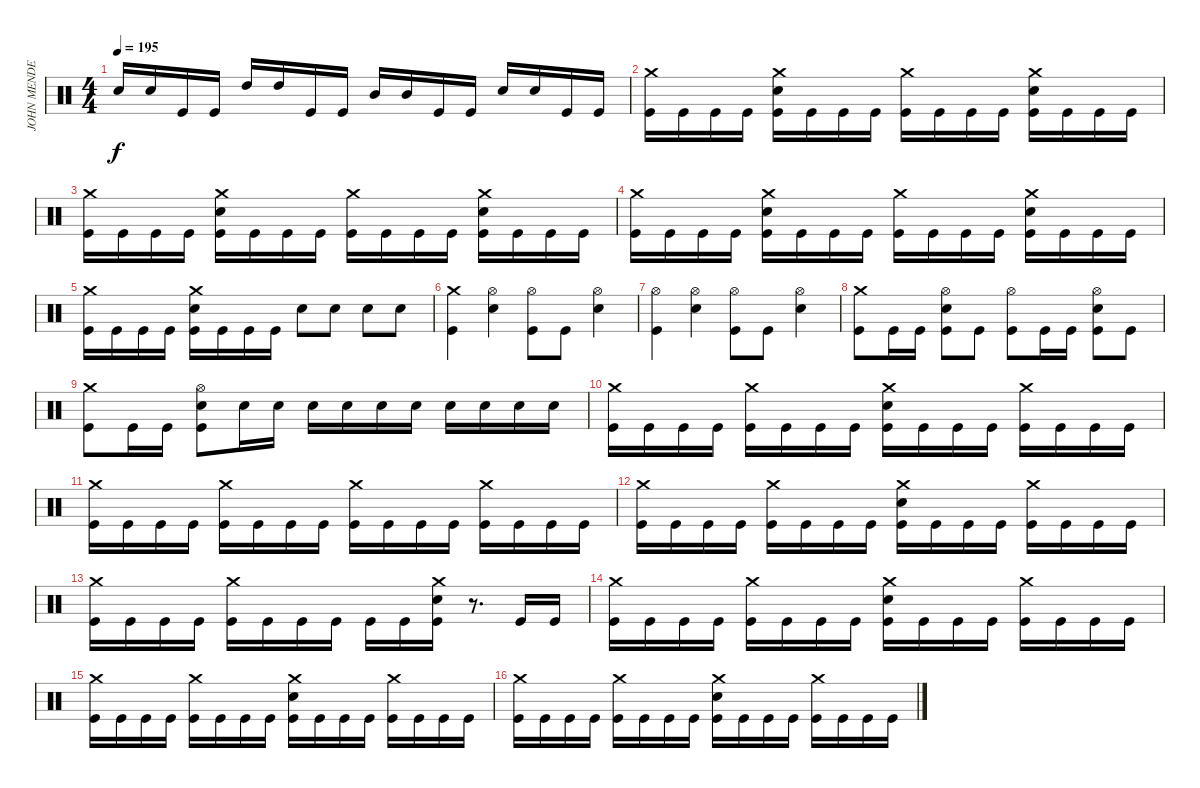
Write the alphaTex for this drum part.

\track ("JOHN MENDESSSSSSS" "JOHN MENDE") {instrument percussion}
\staff {score}
\articulation defaults
\ts (4 4)
\tempo 195
\clef neutral
\ks c "Snare (hit) 2".16{dy f} "Snare (hit) 2".16 "Kick (hit)".16 "Kick (hit)".16 "High Tom (hit)".16 "High Tom (hit)".16 "Kick (hit)".16 "Kick (hit)".16 "Mid Tom (hit)".16 "Mid Tom (hit)".16 "Kick (hit)".16 "Kick (hit)".16 "Snare (hit) 2".16 "Snare (hit) 2".16 "Kick (hit)".16 "Kick (hit)".16
|
("Kick (hit)" "Crash medium (hit)").16 "Kick (hit)".16 "Kick (hit)".16 "Kick (hit)".16 ("Kick (hit)" "Snare (hit) 2" "Crash medium (hit)").16 "Kick (hit)".16 "Kick (hit)".16 "Kick (hit)".16 ("Kick (hit)" "Crash medium (hit)").16 "Kick (hit)".16 "Kick (hit)".16 "Kick (hit)".16 ("Kick (hit)" "Snare (hit) 2" "Crash medium (hit)").16 "Kick (hit)".16 "Kick (hit)".16 "Kick (hit)".16 |
("Kick (hit)" "Crash medium (hit)").16 "Kick (hit)".16 "Kick (hit)".16 "Kick (hit)".16 ("Kick (hit)" "Snare (hit) 2" "Crash medium (hit)").16 "Kick (hit)".16 "Kick (hit)".16 "Kick (hit)".16 ("Kick (hit)" "Crash medium (hit)").16 "Kick (hit)".16 "Kick (hit)".16 "Kick (hit)".16 ("Kick (hit)" "Snare (hit) 2" "Crash medium (hit)").16 "Kick (hit)".16 "Kick (hit)".16 "Kick (hit)".16 |
("Kick (hit)" "Crash medium (hit)").16 "Kick (hit)".16 "Kick (hit)".16 "Kick (hit)".16 ("Kick (hit)" "Snare (hit) 2" "Crash medium (hit)").16 "Kick (hit)".16 "Kick (hit)".16 "Kick (hit)".16 ("Kick (hit)" "Crash medium (hit)").16 "Kick (hit)".16 "Kick (hit)".16 "Kick (hit)".16 ("Kick (hit)" "Snare (hit) 2" "Crash medium (hit)").16 "Kick (hit)".16 "Kick (hit)".16 "Kick (hit)".16 |
("Kick (hit)" "Crash medium (hit)").16 "Kick (hit)".16 "Kick (hit)".16 "Kick (hit)".16 ("Kick (hit)" "Snare (hit) 2" "Crash medium (hit)").16 "Kick (hit)".16 "Kick (hit)".16 "Kick (hit)".16 "Snare (hit) 2".8 "Snare (hit) 2".8 "Snare (hit) 2".8 "Snare (hit) 2".8 |
("Kick (hit)" "Crash medium (hit)").4 ("Hi-Hat (open)" "Snare (hit) 2").4 ("Kick (hit)" "Hi-Hat (open)").8 "Kick (hit)".8 ("Hi-Hat (open)" "Snare (hit) 2").4 |
("Kick (hit)" "Hi-Hat (open)").4 ("Hi-Hat (open)" "Snare (hit) 2").4 ("Kick (hit)" "Hi-Hat (open)").8 "Kick (hit)".8 ("Hi-Hat (open)" "Snare (hit) 2").4 |
("Kick (hit)" "Crash medium (hit)").8 "Kick (hit)".16 "Kick (hit)".16 ("Kick (hit)" "Snare (hit) 2" "Hi-Hat (open)").8 "Kick (hit)".8 ("Kick (hit)" "Hi-Hat (open)").8 "Kick (hit)".16 "Kick (hit)".16 ("Kick (hit)" "Snare (hit) 2" "Hi-Hat (open)").8 "Kick (hit)".8 |
("Kick (hit)" "Crash medium (hit)").8 "Kick (hit)".16 "Kick (hit)".16 ("Kick (hit)" "Snare (hit) 2" "Hi-Hat (open)").8 "Snare (hit) 2".16 "Snare (hit) 2".16 "Snare (hit) 2".16 "Snare (hit) 2".16 "Snare (hit) 2".16 "Snare (hit) 2".16 "Snare (hit) 2".16 "Snare (hit) 2".16 "Snare (hit) 2".16 "Snare (hit) 2".16 |
("Kick (hit)" "Crash medium (hit)").16 "Kick (hit)".16 "Kick (hit)".16 "Kick (hit)".16 ("Kick (hit)" "Crash medium (hit)").16 "Kick (hit)".16 "Kick (hit)".16 "Kick (hit)".16 ("Kick (hit)" "Snare (hit) 2" "Crash medium (hit)").16 "Kick (hit)".16 "Kick (hit)".16 "Kick (hit)".16 ("Kick (hit)" "Crash medium (hit)").16 "Kick (hit)".16 "Kick (hit)".16 "Kick (hit)".16 |
("Kick (hit)" "Crash medium (hit)").16 "Kick (hit)".16 "Kick (hit)".16 "Kick (hit)".16 ("Kick (hit)" "Crash medium (hit)").16 "Kick (hit)".16 "Kick (hit)".16 "Kick (hit)".16 ("Kick (hit)" "Crash medium (hit)").16 "Kick (hit)".16 "Kick (hit)".16 "Kick (hit)".16 ("Kick (hit)" "Crash medium (hit)").16 "Kick (hit)".16 "Kick (hit)".16 "Kick (hit)".16 |
("Kick (hit)" "Crash medium (hit)").16 "Kick (hit)".16 "Kick (hit)".16 "Kick (hit)".16 ("Kick (hit)" "Crash medium (hit)").16 "Kick (hit)".16 "Kick (hit)".16 "Kick (hit)".16 ("Kick (hit)" "Snare (hit) 2" "Crash medium (hit)").16 "Kick (hit)".16 "Kick (hit)".16 "Kick (hit)".16 ("Kick (hit)" "Crash medium (hit)").16 "Kick (hit)".16 "Kick (hit)".16 "Kick (hit)".16 |
("Kick (hit)" "Crash medium (hit)").16 "Kick (hit)".16 "Kick (hit)".16 "Kick (hit)".16 ("Kick (hit)" "Crash medium (hit)").16 "Kick (hit)".16 "Kick (hit)".16 "Kick (hit)".16 "Kick (hit)".16 "Kick (hit)".16 ("Kick (hit)" "Snare (hit) 2" "Crash medium (hit)").16 r.8{d} "Kick (hit)".16 "Kick (hit)".16 |
("Kick (hit)" "Crash medium (hit)").16 "Kick (hit)".16 "Kick (hit)".16 "Kick (hit)".16 ("Kick (hit)" "Crash medium (hit)").16 "Kick (hit)".16 "Kick (hit)".16 "Kick (hit)".16 ("Kick (hit)" "Snare (hit) 2" "Crash medium (hit)").16 "Kick (hit)".16 "Kick (hit)".16 "Kick (hit)".16 ("Kick (hit)" "Crash medium (hit)").16 "Kick (hit)".16 "Kick (hit)".16 "Kick (hit)".16 |
("Kick (hit)" "Crash medium (hit)").16 "Kick (hit)".16 "Kick (hit)".16 "Kick (hit)".16 ("Kick (hit)" "Crash medium (hit)").16 "Kick (hit)".16 "Kick (hit)".16 "Kick (hit)".16 ("Kick (hit)" "Snare (hit) 2" "Crash medium (hit)").16 "Kick (hit)".16 "Kick (hit)".16 "Kick (hit)".16 ("Kick (hit)" "Crash medium (hit)").16 "Kick (hit)".16 "Kick (hit)".16 "Kick (hit)".16 |
("Kick (hit)" "Crash medium (hit)").16 "Kick (hit)".16 "Kick (hit)".16 "Kick (hit)".16 ("Kick (hit)" "Crash medium (hit)").16 "Kick (hit)".16 "Kick (hit)".16 "Kick (hit)".16 ("Kick (hit)" "Snare (hit) 2" "Crash medium (hit)").16 "Kick (hit)".16 "Kick (hit)".16 "Kick (hit)".16 ("Kick (hit)" "Crash medium (hit)").16 "Kick (hit)".16 "Kick (hit)".16 "Kick (hit)".16
